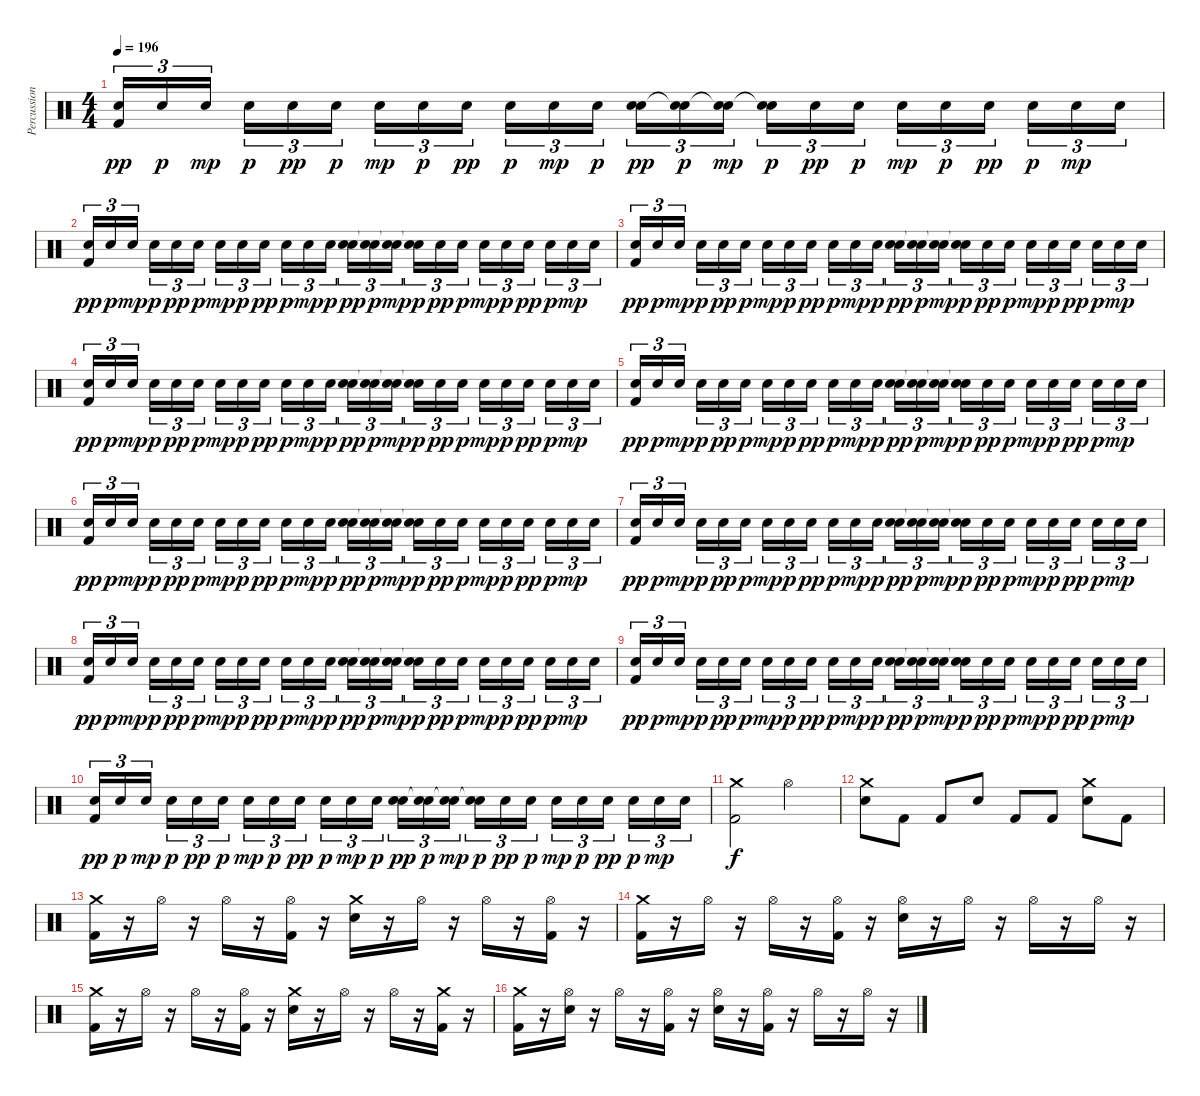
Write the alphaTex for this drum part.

\track ("Percussion" "Percussion") {instrument percussion}
\staff {score}
\articulation defaults
\ts (4 4)
\tempo 196
\clef neutral
\ks c
("Electric Snare (hit)" "Kick (hit) 2").16{tu (3 2) dy pp} "Electric Snare (hit)".16{tu (3 2) dy p} "Electric Snare (hit)".16{tu (3 2) dy mp} "Electric Snare (hit)".16{tu (3 2) dy p} "Electric Snare (hit)".16{tu (3 2) dy pp} "Electric Snare (hit)".16{tu (3 2) dy p} "Electric Snare (hit)".16{tu (3 2) dy mp} "Electric Snare (hit)".16{tu (3 2) dy p} "Electric Snare (hit)".16{tu (3 2) dy pp} "Electric Snare (hit)".16{tu (3 2) dy p} "Electric Snare (hit)".16{tu (3 2) dy mp} "Electric Snare (hit)".16{tu (3 2) dy p} ("Electric Snare (hit)" "Snare (hit) 2").16{tu (3 2) dy pp} ("Electric Snare (hit)" "Snare (hit)"{t}).16{tu (3 2) dy p} ("Electric Snare (hit)" "Snare (hit)"{t}).16{tu (3 2) dy mp} ("Electric Snare (hit)" "Snare (hit)"{t}).16{tu (3 2) dy p} "Electric Snare (hit)".16{tu (3 2) dy pp} "Electric Snare (hit)".16{tu (3 2) dy p} "Electric Snare (hit)".16{tu (3 2) dy mp} "Electric Snare (hit)".16{tu (3 2) dy p} "Electric Snare (hit)".16{tu (3 2) dy pp} "Electric Snare (hit)".16{tu (3 2) dy p} "Electric Snare (hit)".16{tu (3 2) dy mp} "Electric Snare (hit)".16{tu (3 2)} |
("Electric Snare (hit)" "Kick (hit) 2").16{tu (3 2) dy pp} "Electric Snare (hit)".16{tu (3 2) dy p} "Electric Snare (hit)".16{tu (3 2) dy mp} "Electric Snare (hit)".16{tu (3 2) dy p} "Electric Snare (hit)".16{tu (3 2) dy pp} "Electric Snare (hit)".16{tu (3 2) dy p} "Electric Snare (hit)".16{tu (3 2) dy mp} "Electric Snare (hit)".16{tu (3 2) dy p} "Electric Snare (hit)".16{tu (3 2) dy pp} "Electric Snare (hit)".16{tu (3 2) dy p} "Electric Snare (hit)".16{tu (3 2) dy mp} "Electric Snare (hit)".16{tu (3 2) dy p} ("Electric Snare (hit)" "Snare (hit) 2").16{tu (3 2) dy pp} ("Electric Snare (hit)" "Snare (hit)"{t}).16{tu (3 2) dy p} ("Electric Snare (hit)" "Snare (hit)"{t}).16{tu (3 2) dy mp} ("Electric Snare (hit)" "Snare (hit)"{t}).16{tu (3 2) dy p} "Electric Snare (hit)".16{tu (3 2) dy pp} "Electric Snare (hit)".16{tu (3 2) dy p} "Electric Snare (hit)".16{tu (3 2) dy mp} "Electric Snare (hit)".16{tu (3 2) dy p} "Electric Snare (hit)".16{tu (3 2) dy pp} "Electric Snare (hit)".16{tu (3 2) dy p} "Electric Snare (hit)".16{tu (3 2) dy mp} "Electric Snare (hit)".16{tu (3 2)} |
("Electric Snare (hit)" "Kick (hit) 2").16{tu (3 2) dy pp} "Electric Snare (hit)".16{tu (3 2) dy p} "Electric Snare (hit)".16{tu (3 2) dy mp} "Electric Snare (hit)".16{tu (3 2) dy p} "Electric Snare (hit)".16{tu (3 2) dy pp} "Electric Snare (hit)".16{tu (3 2) dy p} "Electric Snare (hit)".16{tu (3 2) dy mp} "Electric Snare (hit)".16{tu (3 2) dy p} "Electric Snare (hit)".16{tu (3 2) dy pp} "Electric Snare (hit)".16{tu (3 2) dy p} "Electric Snare (hit)".16{tu (3 2) dy mp} "Electric Snare (hit)".16{tu (3 2) dy p} ("Electric Snare (hit)" "Snare (hit) 2").16{tu (3 2) dy pp} ("Electric Snare (hit)" "Snare (hit)"{t}).16{tu (3 2) dy p} ("Electric Snare (hit)" "Snare (hit)"{t}).16{tu (3 2) dy mp} ("Electric Snare (hit)" "Snare (hit)"{t}).16{tu (3 2) dy p} "Electric Snare (hit)".16{tu (3 2) dy pp} "Electric Snare (hit)".16{tu (3 2) dy p} "Electric Snare (hit)".16{tu (3 2) dy mp} "Electric Snare (hit)".16{tu (3 2) dy p} "Electric Snare (hit)".16{tu (3 2) dy pp} "Electric Snare (hit)".16{tu (3 2) dy p} "Electric Snare (hit)".16{tu (3 2) dy mp} "Electric Snare (hit)".16{tu (3 2)} |
("Electric Snare (hit)" "Kick (hit) 2").16{tu (3 2) dy pp} "Electric Snare (hit)".16{tu (3 2) dy p} "Electric Snare (hit)".16{tu (3 2) dy mp} "Electric Snare (hit)".16{tu (3 2) dy p} "Electric Snare (hit)".16{tu (3 2) dy pp} "Electric Snare (hit)".16{tu (3 2) dy p} "Electric Snare (hit)".16{tu (3 2) dy mp} "Electric Snare (hit)".16{tu (3 2) dy p} "Electric Snare (hit)".16{tu (3 2) dy pp} "Electric Snare (hit)".16{tu (3 2) dy p} "Electric Snare (hit)".16{tu (3 2) dy mp} "Electric Snare (hit)".16{tu (3 2) dy p} ("Electric Snare (hit)" "Snare (hit) 2").16{tu (3 2) dy pp} ("Electric Snare (hit)" "Snare (hit)"{t}).16{tu (3 2) dy p} ("Electric Snare (hit)" "Snare (hit)"{t}).16{tu (3 2) dy mp} ("Electric Snare (hit)" "Snare (hit)"{t}).16{tu (3 2) dy p} "Electric Snare (hit)".16{tu (3 2) dy pp} "Electric Snare (hit)".16{tu (3 2) dy p} "Electric Snare (hit)".16{tu (3 2) dy mp} "Electric Snare (hit)".16{tu (3 2) dy p} "Electric Snare (hit)".16{tu (3 2) dy pp} "Electric Snare (hit)".16{tu (3 2) dy p} "Electric Snare (hit)".16{tu (3 2) dy mp} "Electric Snare (hit)".16{tu (3 2)} |
("Electric Snare (hit)" "Kick (hit) 2").16{tu (3 2) dy pp} "Electric Snare (hit)".16{tu (3 2) dy p} "Electric Snare (hit)".16{tu (3 2) dy mp} "Electric Snare (hit)".16{tu (3 2) dy p} "Electric Snare (hit)".16{tu (3 2) dy pp} "Electric Snare (hit)".16{tu (3 2) dy p} "Electric Snare (hit)".16{tu (3 2) dy mp} "Electric Snare (hit)".16{tu (3 2) dy p} "Electric Snare (hit)".16{tu (3 2) dy pp} "Electric Snare (hit)".16{tu (3 2) dy p} "Electric Snare (hit)".16{tu (3 2) dy mp} "Electric Snare (hit)".16{tu (3 2) dy p} ("Electric Snare (hit)" "Snare (hit) 2").16{tu (3 2) dy pp} ("Electric Snare (hit)" "Snare (hit)"{t}).16{tu (3 2) dy p} ("Electric Snare (hit)" "Snare (hit)"{t}).16{tu (3 2) dy mp} ("Electric Snare (hit)" "Snare (hit)"{t}).16{tu (3 2) dy p} "Electric Snare (hit)".16{tu (3 2) dy pp} "Electric Snare (hit)".16{tu (3 2) dy p} "Electric Snare (hit)".16{tu (3 2) dy mp} "Electric Snare (hit)".16{tu (3 2) dy p} "Electric Snare (hit)".16{tu (3 2) dy pp} "Electric Snare (hit)".16{tu (3 2) dy p} "Electric Snare (hit)".16{tu (3 2) dy mp} "Electric Snare (hit)".16{tu (3 2)} |
("Electric Snare (hit)" "Kick (hit) 2").16{tu (3 2) dy pp} "Electric Snare (hit)".16{tu (3 2) dy p} "Electric Snare (hit)".16{tu (3 2) dy mp} "Electric Snare (hit)".16{tu (3 2) dy p} "Electric Snare (hit)".16{tu (3 2) dy pp} "Electric Snare (hit)".16{tu (3 2) dy p} "Electric Snare (hit)".16{tu (3 2) dy mp} "Electric Snare (hit)".16{tu (3 2) dy p} "Electric Snare (hit)".16{tu (3 2) dy pp} "Electric Snare (hit)".16{tu (3 2) dy p} "Electric Snare (hit)".16{tu (3 2) dy mp} "Electric Snare (hit)".16{tu (3 2) dy p} ("Electric Snare (hit)" "Snare (hit) 2").16{tu (3 2) dy pp} ("Electric Snare (hit)" "Snare (hit)"{t}).16{tu (3 2) dy p} ("Electric Snare (hit)" "Snare (hit)"{t}).16{tu (3 2) dy mp} ("Electric Snare (hit)" "Snare (hit)"{t}).16{tu (3 2) dy p} "Electric Snare (hit)".16{tu (3 2) dy pp} "Electric Snare (hit)".16{tu (3 2) dy p} "Electric Snare (hit)".16{tu (3 2) dy mp} "Electric Snare (hit)".16{tu (3 2) dy p} "Electric Snare (hit)".16{tu (3 2) dy pp} "Electric Snare (hit)".16{tu (3 2) dy p} "Electric Snare (hit)".16{tu (3 2) dy mp} "Electric Snare (hit)".16{tu (3 2)} |
("Electric Snare (hit)" "Kick (hit) 2").16{tu (3 2) dy pp} "Electric Snare (hit)".16{tu (3 2) dy p} "Electric Snare (hit)".16{tu (3 2) dy mp} "Electric Snare (hit)".16{tu (3 2) dy p} "Electric Snare (hit)".16{tu (3 2) dy pp} "Electric Snare (hit)".16{tu (3 2) dy p} "Electric Snare (hit)".16{tu (3 2) dy mp} "Electric Snare (hit)".16{tu (3 2) dy p} "Electric Snare (hit)".16{tu (3 2) dy pp} "Electric Snare (hit)".16{tu (3 2) dy p} "Electric Snare (hit)".16{tu (3 2) dy mp} "Electric Snare (hit)".16{tu (3 2) dy p} ("Electric Snare (hit)" "Snare (hit) 2").16{tu (3 2) dy pp} ("Electric Snare (hit)" "Snare (hit)"{t}).16{tu (3 2) dy p} ("Electric Snare (hit)" "Snare (hit)"{t}).16{tu (3 2) dy mp} ("Electric Snare (hit)" "Snare (hit)"{t}).16{tu (3 2) dy p} "Electric Snare (hit)".16{tu (3 2) dy pp} "Electric Snare (hit)".16{tu (3 2) dy p} "Electric Snare (hit)".16{tu (3 2) dy mp} "Electric Snare (hit)".16{tu (3 2) dy p} "Electric Snare (hit)".16{tu (3 2) dy pp} "Electric Snare (hit)".16{tu (3 2) dy p} "Electric Snare (hit)".16{tu (3 2) dy mp} "Electric Snare (hit)".16{tu (3 2)} |
("Electric Snare (hit)" "Kick (hit) 2").16{tu (3 2) dy pp} "Electric Snare (hit)".16{tu (3 2) dy p} "Electric Snare (hit)".16{tu (3 2) dy mp} "Electric Snare (hit)".16{tu (3 2) dy p} "Electric Snare (hit)".16{tu (3 2) dy pp} "Electric Snare (hit)".16{tu (3 2) dy p} "Electric Snare (hit)".16{tu (3 2) dy mp} "Electric Snare (hit)".16{tu (3 2) dy p} "Electric Snare (hit)".16{tu (3 2) dy pp} "Electric Snare (hit)".16{tu (3 2) dy p} "Electric Snare (hit)".16{tu (3 2) dy mp} "Electric Snare (hit)".16{tu (3 2) dy p} ("Electric Snare (hit)" "Snare (hit) 2").16{tu (3 2) dy pp} ("Electric Snare (hit)" "Snare (hit)"{t}).16{tu (3 2) dy p} ("Electric Snare (hit)" "Snare (hit)"{t}).16{tu (3 2) dy mp} ("Electric Snare (hit)" "Snare (hit)"{t}).16{tu (3 2) dy p} "Electric Snare (hit)".16{tu (3 2) dy pp} "Electric Snare (hit)".16{tu (3 2) dy p} "Electric Snare (hit)".16{tu (3 2) dy mp} "Electric Snare (hit)".16{tu (3 2) dy p} "Electric Snare (hit)".16{tu (3 2) dy pp} "Electric Snare (hit)".16{tu (3 2) dy p} "Electric Snare (hit)".16{tu (3 2) dy mp} "Electric Snare (hit)".16{tu (3 2)} |
("Electric Snare (hit)" "Kick (hit) 2").16{tu (3 2) dy pp} "Electric Snare (hit)".16{tu (3 2) dy p} "Electric Snare (hit)".16{tu (3 2) dy mp} "Electric Snare (hit)".16{tu (3 2) dy p} "Electric Snare (hit)".16{tu (3 2) dy pp} "Electric Snare (hit)".16{tu (3 2) dy p} "Electric Snare (hit)".16{tu (3 2) dy mp} "Electric Snare (hit)".16{tu (3 2) dy p} "Electric Snare (hit)".16{tu (3 2) dy pp} "Electric Snare (hit)".16{tu (3 2) dy p} "Electric Snare (hit)".16{tu (3 2) dy mp} "Electric Snare (hit)".16{tu (3 2) dy p} ("Electric Snare (hit)" "Snare (hit) 2").16{tu (3 2) dy pp} ("Electric Snare (hit)" "Snare (hit)"{t}).16{tu (3 2) dy p} ("Electric Snare (hit)" "Snare (hit)"{t}).16{tu (3 2) dy mp} ("Electric Snare (hit)" "Snare (hit)"{t}).16{tu (3 2) dy p} "Electric Snare (hit)".16{tu (3 2) dy pp} "Electric Snare (hit)".16{tu (3 2) dy p} "Electric Snare (hit)".16{tu (3 2) dy mp} "Electric Snare (hit)".16{tu (3 2) dy p} "Electric Snare (hit)".16{tu (3 2) dy pp} "Electric Snare (hit)".16{tu (3 2) dy p} "Electric Snare (hit)".16{tu (3 2) dy mp} "Electric Snare (hit)".16{tu (3 2)} |
("Electric Snare (hit)" "Kick (hit) 2").16{tu (3 2) dy pp} "Electric Snare (hit)".16{tu (3 2) dy p} "Electric Snare (hit)".16{tu (3 2) dy mp} "Electric Snare (hit)".16{tu (3 2) dy p} "Electric Snare (hit)".16{tu (3 2) dy pp} "Electric Snare (hit)".16{tu (3 2) dy p} "Electric Snare (hit)".16{tu (3 2) dy mp} "Electric Snare (hit)".16{tu (3 2) dy p} "Electric Snare (hit)".16{tu (3 2) dy pp} "Electric Snare (hit)".16{tu (3 2) dy p} "Electric Snare (hit)".16{tu (3 2) dy mp} "Electric Snare (hit)".16{tu (3 2) dy p} ("Electric Snare (hit)" "Snare (hit) 2").16{tu (3 2) dy pp} ("Electric Snare (hit)" "Snare (hit)"{t}).16{tu (3 2) dy p} ("Electric Snare (hit)" "Snare (hit)"{t}).16{tu (3 2) dy mp} ("Electric Snare (hit)" "Snare (hit)"{t}).16{tu (3 2) dy p} "Electric Snare (hit)".16{tu (3 2) dy pp} "Electric Snare (hit)".16{tu (3 2) dy p} "Electric Snare (hit)".16{tu (3 2) dy mp} "Electric Snare (hit)".16{tu (3 2) dy p} "Electric Snare (hit)".16{tu (3 2) dy pp} "Electric Snare (hit)".16{tu (3 2) dy p} "Electric Snare (hit)".16{tu (3 2) dy mp} "Electric Snare (hit)".16{tu (3 2)} |
("Crash medium (hit)" "Kick (hit) 2").2{dy f} "Hi-Hat (open)".2 |
("Electric Snare (hit)" "Crash medium (hit)").8 "Kick (hit) 2".8 "Kick (hit) 2".8 "Electric Snare (hit)".8 "Kick (hit) 2".8 "Kick (hit) 2".8 ("Electric Snare (hit)" "Crash medium (hit)").8 "Kick (hit) 2".8 |
("Crash medium (hit)" "Kick (hit) 2").16 r.16 "Hi-Hat (open)".16 r.16 "Hi-Hat (open)".16 r.16 ("Hi-Hat (open)" "Kick (hit) 2").16 r.16 ("Crash medium (hit)" "Electric Snare (hit)").16 r.16 "Hi-Hat (open)".16 r.16 "Hi-Hat (open)".16 r.16 ("Hi-Hat (open)" "Kick (hit) 2").16 r.16 |
("Crash medium (hit)" "Kick (hit) 2").16 r.16 "Hi-Hat (open)".16 r.16 "Hi-Hat (open)".16 r.16 ("Hi-Hat (open)" "Kick (hit) 2").16 r.16 ("Hi-Hat (open)" "Electric Snare (hit)").16 r.16 "Hi-Hat (open)".16 r.16 "Hi-Hat (open)".16 r.16 "Hi-Hat (open)".16 r.16 |
("Crash medium (hit)" "Kick (hit) 2").16 r.16 "Hi-Hat (open)".16 r.16 "Hi-Hat (open)".16 r.16 ("Hi-Hat (open)" "Kick (hit) 2").16 r.16 ("Crash medium (hit)" "Electric Snare (hit)").16 r.16 "Hi-Hat (open)".16 r.16 "Hi-Hat (open)".16 r.16 ("Crash medium (hit)" "Kick (hit) 2").16 r.16 |
("Crash medium (hit)" "Kick (hit) 2").16 r.16 ("Hi-Hat (open)" "Electric Snare (hit)").16 r.16 "Hi-Hat (open)".16 r.16 ("Hi-Hat (open)" "Kick (hit) 2").16 r.16 ("Hi-Hat (open)" "Electric Snare (hit)").16 r.16 ("Hi-Hat (open)" "Kick (hit) 2").16 r.16 "Hi-Hat (open)".16 r.16 "Hi-Hat (open)".16 r.16
